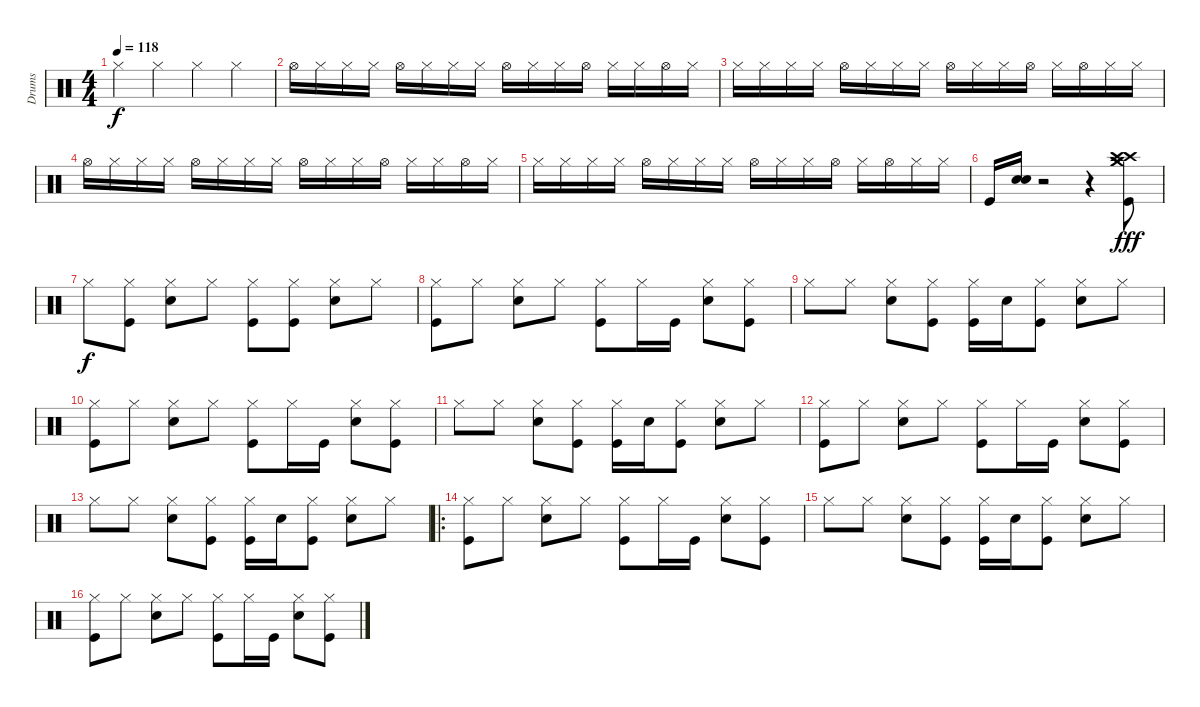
\track ("Drums" "Drums") {instrument percussion}
\staff {score}
\articulation defaults
\ts (4 4)
\tempo 118
\clef neutral
\ks c "Hi-Hat (closed)".4{dy f} "Hi-Hat (closed)".4 "Hi-Hat (closed)".4 "Hi-Hat (closed)".4
|
"Hi-Hat (open)".16 "Hi-Hat (closed)".16 "Hi-Hat (closed)".16 "Hi-Hat (closed)".16 "Hi-Hat (open)".16 "Hi-Hat (closed)".16 "Hi-Hat (closed)".16 "Hi-Hat (closed)".16 "Hi-Hat (open)".16 "Hi-Hat (closed)".16 "Hi-Hat (closed)".16 "Hi-Hat (open)".16 "Hi-Hat (closed)".16 "Hi-Hat (closed)".16 "Hi-Hat (open)".16 "Hi-Hat (closed)".16 |
"Hi-Hat (closed)".16 "Hi-Hat (closed)".16 "Hi-Hat (closed)".16 "Hi-Hat (closed)".16 "Hi-Hat (open)".16 "Hi-Hat (closed)".16 "Hi-Hat (closed)".16 "Hi-Hat (closed)".16 "Hi-Hat (open)".16 "Hi-Hat (closed)".16 "Hi-Hat (closed)".16 "Hi-Hat (open)".16 "Hi-Hat (closed)".16 "Hi-Hat (open)".16 "Hi-Hat (closed)".16 "Hi-Hat (closed)".16 |
"Hi-Hat (open)".16 "Hi-Hat (closed)".16 "Hi-Hat (closed)".16 "Hi-Hat (closed)".16 "Hi-Hat (open)".16 "Hi-Hat (closed)".16 "Hi-Hat (closed)".16 "Hi-Hat (closed)".16 "Hi-Hat (open)".16 "Hi-Hat (closed)".16 "Hi-Hat (closed)".16 "Hi-Hat (open)".16 "Hi-Hat (closed)".16 "Hi-Hat (closed)".16 "Hi-Hat (open)".16 "Hi-Hat (closed)".16 |
"Hi-Hat (closed)".16 "Hi-Hat (closed)".16 "Hi-Hat (closed)".16 "Hi-Hat (closed)".16 "Hi-Hat (open)".16 "Hi-Hat (closed)".16 "Hi-Hat (closed)".16 "Hi-Hat (closed)".16 "Hi-Hat (open)".16 "Hi-Hat (closed)".16 "Hi-Hat (closed)".16 "Hi-Hat (open)".16 "Hi-Hat (closed)".16 "Hi-Hat (open)".16 "Hi-Hat (closed)".16 "Hi-Hat (closed)".16 |
"Kick (hit)".16 ("Snare (hit) 2" "Snare (hit) 2").16 r.2 r.4 ("Crash high (hit)" "Crash medium (hit)" "Crash medium (hit)" "Crash high (hit)" "Kick (hit)").8{dy fff} |
"Hi-Hat (closed)".8{dy f} ("Hi-Hat (closed)" "Kick (hit)").8 ("Hi-Hat (closed)" "Snare (hit) 2").8 "Hi-Hat (closed)".8 ("Hi-Hat (closed)" "Kick (hit)").8 ("Hi-Hat (closed)" "Kick (hit)").8 ("Hi-Hat (closed)" "Snare (hit) 2").8 "Hi-Hat (closed)".8 |
("Hi-Hat (closed)" "Kick (hit)").8 "Hi-Hat (closed)".8 ("Hi-Hat (closed)" "Snare (hit) 2").8 "Hi-Hat (closed)".8 ("Hi-Hat (closed)" "Kick (hit)").8 "Hi-Hat (closed)".16 "Kick (hit)".16 ("Hi-Hat (closed)" "Snare (hit) 2").8 ("Hi-Hat (closed)" "Kick (hit)").8 |
"Hi-Hat (closed)".8 "Hi-Hat (closed)".8 ("Hi-Hat (closed)" "Snare (hit) 2").8 ("Hi-Hat (closed)" "Kick (hit)").8 ("Hi-Hat (closed)" "Kick (hit)").16 "Snare (hit) 2".16 ("Hi-Hat (closed)" "Kick (hit)").8 ("Hi-Hat (closed)" "Snare (hit) 2").8 "Hi-Hat (closed)".8 |
("Hi-Hat (closed)" "Kick (hit)").8 "Hi-Hat (closed)".8 ("Hi-Hat (closed)" "Snare (hit) 2").8 "Hi-Hat (closed)".8 ("Hi-Hat (closed)" "Kick (hit)").8 "Hi-Hat (closed)".16 "Kick (hit)".16 ("Hi-Hat (closed)" "Snare (hit) 2").8 ("Hi-Hat (closed)" "Kick (hit)").8 |
"Hi-Hat (closed)".8 "Hi-Hat (closed)".8 ("Hi-Hat (closed)" "Snare (hit) 2").8 ("Hi-Hat (closed)" "Kick (hit)").8 ("Hi-Hat (closed)" "Kick (hit)").16 "Snare (hit) 2".16 ("Hi-Hat (closed)" "Kick (hit)").8 ("Hi-Hat (closed)" "Snare (hit) 2").8 "Hi-Hat (closed)".8 |
("Hi-Hat (closed)" "Kick (hit)").8 "Hi-Hat (closed)".8 ("Hi-Hat (closed)" "Snare (hit) 2").8 "Hi-Hat (closed)".8 ("Hi-Hat (closed)" "Kick (hit)").8 "Hi-Hat (closed)".16 "Kick (hit)".16 ("Hi-Hat (closed)" "Snare (hit) 2").8 ("Hi-Hat (closed)" "Kick (hit)").8 |
"Hi-Hat (closed)".8 "Hi-Hat (closed)".8 ("Hi-Hat (closed)" "Snare (hit) 2").8 ("Hi-Hat (closed)" "Kick (hit)").8 ("Hi-Hat (closed)" "Kick (hit)").16 "Snare (hit) 2".16 ("Hi-Hat (closed)" "Kick (hit)").8 ("Hi-Hat (closed)" "Snare (hit) 2").8 "Hi-Hat (closed)".8 |
\ro
("Hi-Hat (closed)" "Kick (hit)").8 "Hi-Hat (closed)".8 ("Hi-Hat (closed)" "Snare (hit) 2").8 "Hi-Hat (closed)".8 ("Hi-Hat (closed)" "Kick (hit)").8 "Hi-Hat (closed)".16 "Kick (hit)".16 ("Hi-Hat (closed)" "Snare (hit) 2").8 ("Hi-Hat (closed)" "Kick (hit)").8 |
"Hi-Hat (closed)".8 "Hi-Hat (closed)".8 ("Hi-Hat (closed)" "Snare (hit) 2").8 ("Hi-Hat (closed)" "Kick (hit)").8 ("Hi-Hat (closed)" "Kick (hit)").16 "Snare (hit) 2".16 ("Hi-Hat (closed)" "Kick (hit)").8 ("Hi-Hat (closed)" "Snare (hit) 2").8 "Hi-Hat (closed)".8 |
("Hi-Hat (closed)" "Kick (hit)").8 "Hi-Hat (closed)".8 ("Hi-Hat (closed)" "Snare (hit) 2").8 "Hi-Hat (closed)".8 ("Hi-Hat (closed)" "Kick (hit)").8 "Hi-Hat (closed)".16 "Kick (hit)".16 ("Hi-Hat (closed)" "Snare (hit) 2").8 ("Hi-Hat (closed)" "Kick (hit)").8
